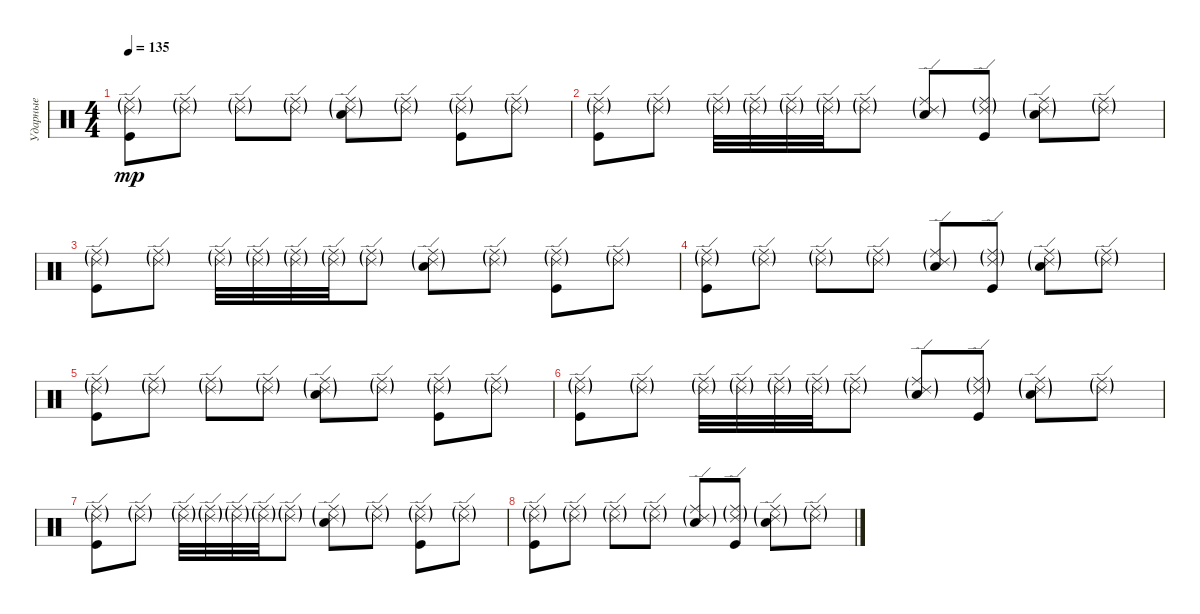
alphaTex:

\track ("Ударные" "Ударные") {instrument percussion}
\staff {score}
\articulation defaults
\ts (4 4)
\tempo 135
\clef neutral
\ks c
("Ride (edge) 2"{g} "Ride (middle)"{g} "Kick (hit)").8{dy mp} ("Ride (edge) 2"{g} "Ride (middle)"{g}).8 ("Ride (edge) 2"{g} "Ride (middle)"{g}).8 ("Ride (edge) 2"{g} "Ride (middle)"{g}).8 ("Ride (edge) 2"{g} "Ride (middle)"{g} "Electric Snare (hit)"{g}).8 ("Ride (edge) 2"{g} "Ride (middle)"{g}).8 ("Ride (edge) 2"{g} "Ride (middle)"{g} "Kick (hit)").8 ("Ride (edge) 2"{g} "Ride (middle)"{g}).8 |
("Ride (edge) 2"{g} "Ride (middle)"{g} "Kick (hit)").8 ("Ride (edge) 2"{g} "Ride (middle)"{g}).8 ("Ride (edge) 2"{g} "Ride (middle)"{g}).32 ("Ride (edge) 2"{g} "Ride (middle)"{g}).32 ("Ride (edge) 2"{g} "Ride (middle)"{g}).32 ("Ride (edge) 2"{g} "Ride (middle)"{g}).32 ("Ride (edge) 2"{g} "Ride (middle)"{g}).8 ("Ride (edge) 2"{g} "Ride (middle)"{g} "Electric Snare (hit)"{g}).8 ("Ride (edge) 2"{g} "Ride (middle)"{g} "Kick (hit)").8 ("Ride (edge) 2"{g} "Ride (middle)"{g} "Electric Snare (hit)"{g}).8 ("Ride (edge) 2"{g} "Ride (middle)"{g}).8 |
("Ride (edge) 2"{g} "Ride (middle)"{g} "Kick (hit)").8 ("Ride (edge) 2"{g} "Ride (middle)"{g}).8 ("Ride (edge) 2"{g} "Ride (middle)"{g}).32 ("Ride (edge) 2"{g} "Ride (middle)"{g}).32 ("Ride (edge) 2"{g} "Ride (middle)"{g}).32 ("Ride (edge) 2"{g} "Ride (middle)"{g}).32 ("Ride (edge) 2"{g} "Ride (middle)"{g}).8 ("Ride (edge) 2"{g} "Ride (middle)"{g} "Electric Snare (hit)"{g}).8 ("Ride (edge) 2"{g} "Ride (middle)"{g}).8 ("Ride (edge) 2"{g} "Ride (middle)"{g} "Kick (hit)").8 ("Ride (edge) 2"{g} "Ride (middle)"{g}).8 |
("Ride (edge) 2"{g} "Ride (middle)"{g} "Kick (hit)").8 ("Ride (edge) 2"{g} "Ride (middle)"{g}).8 ("Ride (edge) 2"{g} "Ride (middle)"{g}).8 ("Ride (edge) 2"{g} "Ride (middle)"{g}).8 ("Ride (edge) 2"{g} "Ride (middle)"{g} "Electric Snare (hit)"{g}).8 ("Ride (edge) 2"{g} "Ride (middle)"{g} "Kick (hit)").8 ("Ride (edge) 2"{g} "Ride (middle)"{g} "Electric Snare (hit)"{g}).8 ("Ride (edge) 2"{g} "Ride (middle)"{g}).8 |
("Ride (edge) 2"{g} "Ride (middle)"{g} "Kick (hit)").8 ("Ride (edge) 2"{g} "Ride (middle)"{g}).8 ("Ride (edge) 2"{g} "Ride (middle)"{g}).8 ("Ride (edge) 2"{g} "Ride (middle)"{g}).8 ("Ride (edge) 2"{g} "Ride (middle)"{g} "Electric Snare (hit)"{g}).8 ("Ride (edge) 2"{g} "Ride (middle)"{g}).8 ("Ride (edge) 2"{g} "Ride (middle)"{g} "Kick (hit)").8 ("Ride (edge) 2"{g} "Ride (middle)"{g}).8 |
("Ride (edge) 2"{g} "Ride (middle)"{g} "Kick (hit)").8 ("Ride (edge) 2"{g} "Ride (middle)"{g}).8 ("Ride (edge) 2"{g} "Ride (middle)"{g}).32 ("Ride (edge) 2"{g} "Ride (middle)"{g}).32 ("Ride (edge) 2"{g} "Ride (middle)"{g}).32 ("Ride (edge) 2"{g} "Ride (middle)"{g}).32 ("Ride (edge) 2"{g} "Ride (middle)"{g}).8 ("Ride (edge) 2"{g} "Ride (middle)"{g} "Electric Snare (hit)"{g}).8 ("Ride (edge) 2"{g} "Ride (middle)"{g} "Kick (hit)").8 ("Ride (edge) 2"{g} "Ride (middle)"{g} "Electric Snare (hit)"{g}).8 ("Ride (edge) 2"{g} "Ride (middle)"{g}).8 |
("Ride (edge) 2"{g} "Ride (middle)"{g} "Kick (hit)").8 ("Ride (edge) 2"{g} "Ride (middle)"{g}).8 ("Ride (edge) 2"{g} "Ride (middle)"{g}).32 ("Ride (edge) 2"{g} "Ride (middle)"{g}).32 ("Ride (edge) 2"{g} "Ride (middle)"{g}).32 ("Ride (edge) 2"{g} "Ride (middle)"{g}).32 ("Ride (edge) 2"{g} "Ride (middle)"{g}).8 ("Ride (edge) 2"{g} "Ride (middle)"{g} "Electric Snare (hit)"{g}).8 ("Ride (edge) 2"{g} "Ride (middle)"{g}).8 ("Ride (edge) 2"{g} "Ride (middle)"{g} "Kick (hit)").8 ("Ride (edge) 2"{g} "Ride (middle)"{g}).8 |
("Ride (edge) 2"{g} "Ride (middle)"{g} "Kick (hit)").8 ("Ride (edge) 2"{g} "Ride (middle)"{g}).8 ("Ride (edge) 2"{g} "Ride (middle)"{g}).8 ("Ride (edge) 2"{g} "Ride (middle)"{g}).8 ("Ride (edge) 2"{g} "Ride (middle)"{g} "Electric Snare (hit)"{g}).8 ("Ride (edge) 2"{g} "Ride (middle)"{g} "Kick (hit)").8 ("Ride (edge) 2"{g} "Ride (middle)"{g} "Electric Snare (hit)"{g}).8 ("Ride (edge) 2"{g} "Ride (middle)"{g}).8
